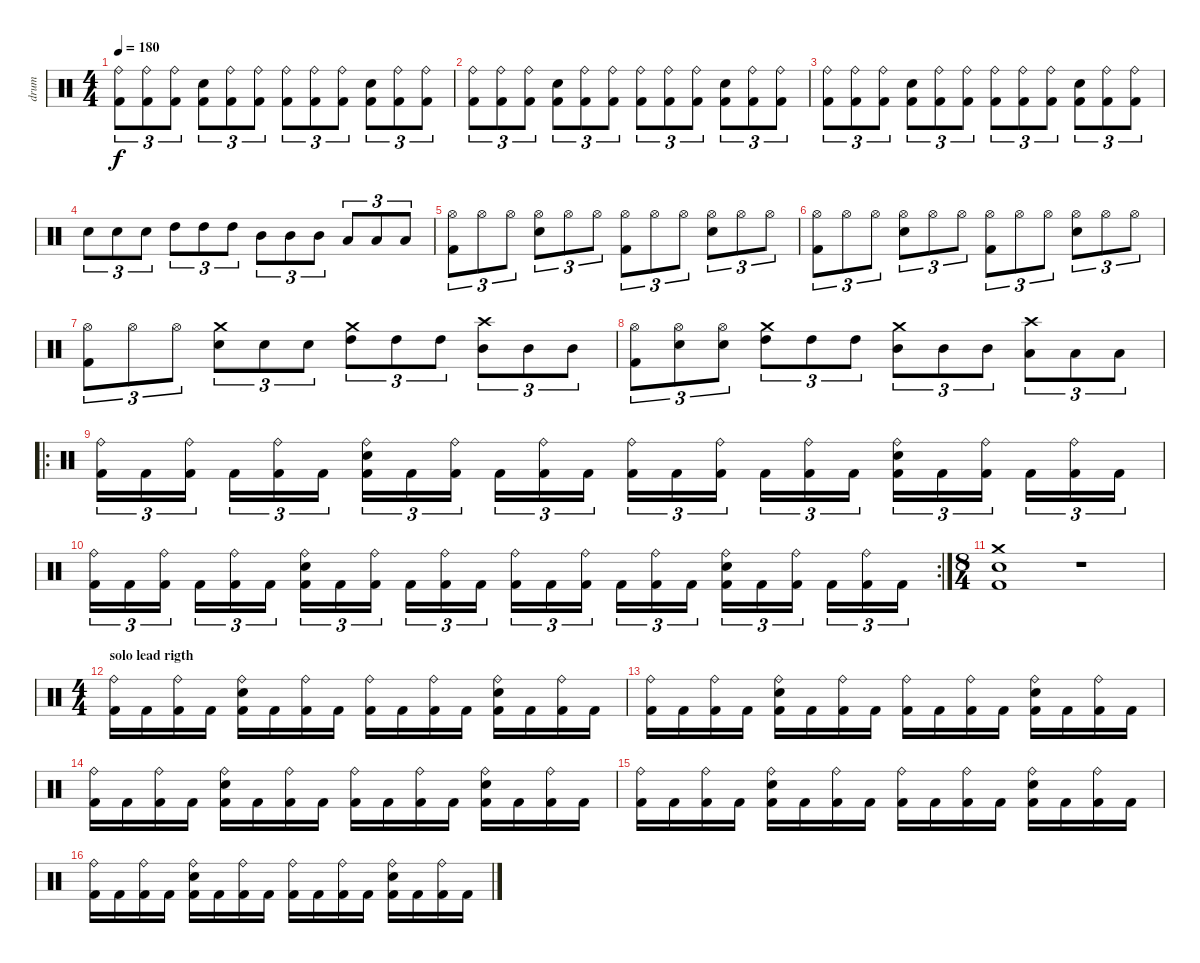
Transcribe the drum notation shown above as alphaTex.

\track ("drum" "drum") {instrument percussion}
\staff {score}
\articulation defaults
\ts (4 4)
\tempo 180
\clef neutral
\ks c
("Ride (bell)" "Kick (hit) 2").8{tu (3 2) dy f} ("Ride (bell)" "Kick (hit) 2").8{tu (3 2)} ("Ride (bell)" "Kick (hit) 2").8{tu (3 2)} ("Electric Snare (hit)" "Kick (hit) 2").8{tu (3 2)} ("Ride (bell)" "Kick (hit) 2").8{tu (3 2)} ("Ride (bell)" "Kick (hit) 2").8{tu (3 2)} ("Ride (bell)" "Kick (hit) 2").8{tu (3 2)} ("Ride (bell)" "Kick (hit) 2").8{tu (3 2)} ("Ride (bell)" "Kick (hit) 2").8{tu (3 2)} ("Electric Snare (hit)" "Kick (hit) 2").8{tu (3 2)} ("Ride (bell)" "Kick (hit) 2").8{tu (3 2)} ("Ride (bell)" "Kick (hit) 2").8{tu (3 2)} |
("Ride (bell)" "Kick (hit) 2").8{tu (3 2)} ("Ride (bell)" "Kick (hit) 2").8{tu (3 2)} ("Ride (bell)" "Kick (hit) 2").8{tu (3 2)} ("Electric Snare (hit)" "Kick (hit) 2").8{tu (3 2)} ("Ride (bell)" "Kick (hit) 2").8{tu (3 2)} ("Ride (bell)" "Kick (hit) 2").8{tu (3 2)} ("Ride (bell)" "Kick (hit) 2").8{tu (3 2)} ("Ride (bell)" "Kick (hit) 2").8{tu (3 2)} ("Ride (bell)" "Kick (hit) 2").8{tu (3 2)} ("Electric Snare (hit)" "Kick (hit) 2").8{tu (3 2)} ("Ride (bell)" "Kick (hit) 2").8{tu (3 2)} ("Ride (bell)" "Kick (hit) 2").8{tu (3 2)} |
("Ride (bell)" "Kick (hit) 2").8{tu (3 2)} ("Ride (bell)" "Kick (hit) 2").8{tu (3 2)} ("Ride (bell)" "Kick (hit) 2").8{tu (3 2)} ("Electric Snare (hit)" "Kick (hit) 2").8{tu (3 2)} ("Ride (bell)" "Kick (hit) 2").8{tu (3 2)} ("Ride (bell)" "Kick (hit) 2").8{tu (3 2)} ("Ride (bell)" "Kick (hit) 2").8{tu (3 2)} ("Ride (bell)" "Kick (hit) 2").8{tu (3 2)} ("Ride (bell)" "Kick (hit) 2").8{tu (3 2)} ("Electric Snare (hit)" "Kick (hit) 2").8{tu (3 2)} ("Ride (bell)" "Kick (hit) 2").8{tu (3 2)} ("Ride (bell)" "Kick (hit) 2").8{tu (3 2)} |
"Electric Snare (hit)".8{tu (3 2)} "Electric Snare (hit)".8{tu (3 2)} "Electric Snare (hit)".8{tu (3 2)} "High Tom (hit)".8{tu (3 2)} "High Tom (hit)".8{tu (3 2)} "High Tom (hit)".8{tu (3 2)} "Mid Tom (hit)".8{tu (3 2)} "Mid Tom (hit)".8{tu (3 2)} "Mid Tom (hit)".8{tu (3 2)} "Low Tom (hit)".8{tu (3 2)} "Low Tom (hit)".8{tu (3 2)} "Low Tom (hit)".8{tu (3 2)} |
("Hi-Hat (open)" "Kick (hit) 2").8{tu (3 2)} "Hi-Hat (open)".8{tu (3 2)} "Hi-Hat (open)".8{tu (3 2)} ("Hi-Hat (open)" "Electric Snare (hit)").8{tu (3 2)} "Hi-Hat (open)".8{tu (3 2)} "Hi-Hat (open)".8{tu (3 2)} ("Hi-Hat (open)" "Kick (hit) 2").8{tu (3 2)} "Hi-Hat (open)".8{tu (3 2)} "Hi-Hat (open)".8{tu (3 2)} ("Hi-Hat (open)" "Electric Snare (hit)").8{tu (3 2)} "Hi-Hat (open)".8{tu (3 2)} "Hi-Hat (open)".8{tu (3 2)} |
("Hi-Hat (open)" "Kick (hit) 2").8{tu (3 2)} "Hi-Hat (open)".8{tu (3 2)} "Hi-Hat (open)".8{tu (3 2)} ("Hi-Hat (open)" "Electric Snare (hit)").8{tu (3 2)} "Hi-Hat (open)".8{tu (3 2)} "Hi-Hat (open)".8{tu (3 2)} ("Hi-Hat (open)" "Kick (hit) 2").8{tu (3 2)} "Hi-Hat (open)".8{tu (3 2)} "Hi-Hat (open)".8{tu (3 2)} ("Hi-Hat (open)" "Electric Snare (hit)").8{tu (3 2)} "Hi-Hat (open)".8{tu (3 2)} "Hi-Hat (open)".8{tu (3 2)} |
("Hi-Hat (open)" "Kick (hit) 2").8{tu (3 2)} "Hi-Hat (open)".8{tu (3 2)} "Hi-Hat (open)".8{tu (3 2)} ("Crash medium (hit)" "Electric Snare (hit)").8{tu (3 2)} "Electric Snare (hit)".8{tu (3 2)} "Electric Snare (hit)".8{tu (3 2)} ("Crash medium (hit)" "High Tom (hit)").8{tu (3 2)} "High Tom (hit)".8{tu (3 2)} "High Tom (hit)".8{tu (3 2)} ("Crash high (hit)" "Mid Tom (hit)").8{tu (3 2)} "Mid Tom (hit)".8{tu (3 2)} "Mid Tom (hit)".8{tu (3 2)} |
("Hi-Hat (open)" "Kick (hit) 2").8{tu (3 2)} ("Hi-Hat (open)" "Electric Snare (hit)").8{tu (3 2)} ("Hi-Hat (open)" "Electric Snare (hit)").8{tu (3 2)} ("Crash medium (hit)" "High Tom (hit)").8{tu (3 2)} "High Tom (hit)".8{tu (3 2)} "High Tom (hit)".8{tu (3 2)} ("Crash medium (hit)" "Mid Tom (hit)").8{tu (3 2)} "Mid Tom (hit)".8{tu (3 2)} "Mid Tom (hit)".8{tu (3 2)} ("Crash high (hit)" "Low Tom (hit)").8{tu (3 2)} "Low Tom (hit)".8{tu (3 2)} "Low Tom (hit)".8{tu (3 2)} |
\ro
("Ride (bell)" "Kick (hit) 2").16{tu (3 2)} "Kick (hit) 2".16{tu (3 2)} ("Ride (bell)" "Kick (hit) 2").16{tu (3 2)} "Kick (hit) 2".16{tu (3 2)} ("Ride (bell)" "Kick (hit) 2").16{tu (3 2)} "Kick (hit) 2".16{tu (3 2)} ("Ride (bell)" "Electric Snare (hit)" "Kick (hit) 2").16{tu (3 2)} "Kick (hit) 2".16{tu (3 2)} ("Ride (bell)" "Kick (hit) 2").16{tu (3 2)} "Kick (hit) 2".16{tu (3 2)} ("Ride (bell)" "Kick (hit) 2").16{tu (3 2)} "Kick (hit) 2".16{tu (3 2)} ("Ride (bell)" "Kick (hit) 2").16{tu (3 2)} "Kick (hit) 2".16{tu (3 2)} ("Ride (bell)" "Kick (hit) 2").16{tu (3 2)} "Kick (hit) 2".16{tu (3 2)} ("Ride (bell)" "Kick (hit) 2").16{tu (3 2)} "Kick (hit) 2".16{tu (3 2)} ("Ride (bell)" "Electric Snare (hit)" "Kick (hit) 2").16{tu (3 2)} "Kick (hit) 2".16{tu (3 2)} ("Ride (bell)" "Kick (hit) 2").16{tu (3 2)} "Kick (hit) 2".16{tu (3 2)} ("Ride (bell)" "Kick (hit) 2").16{tu (3 2)} "Kick (hit) 2".16{tu (3 2)} |
\rc 2
("Ride (bell)" "Kick (hit) 2").16{tu (3 2)} "Kick (hit) 2".16{tu (3 2)} ("Ride (bell)" "Kick (hit) 2").16{tu (3 2)} "Kick (hit) 2".16{tu (3 2)} ("Ride (bell)" "Kick (hit) 2").16{tu (3 2)} "Kick (hit) 2".16{tu (3 2)} ("Ride (bell)" "Electric Snare (hit)" "Kick (hit) 2").16{tu (3 2)} "Kick (hit) 2".16{tu (3 2)} ("Ride (bell)" "Kick (hit) 2").16{tu (3 2)} "Kick (hit) 2".16{tu (3 2)} ("Ride (bell)" "Kick (hit) 2").16{tu (3 2)} "Kick (hit) 2".16{tu (3 2)} ("Ride (bell)" "Kick (hit) 2").16{tu (3 2)} "Kick (hit) 2".16{tu (3 2)} ("Ride (bell)" "Kick (hit) 2").16{tu (3 2)} "Kick (hit) 2".16{tu (3 2)} ("Ride (bell)" "Kick (hit) 2").16{tu (3 2)} "Kick (hit) 2".16{tu (3 2)} ("Ride (bell)" "Electric Snare (hit)" "Kick (hit) 2").16{tu (3 2)} "Kick (hit) 2".16{tu (3 2)} ("Ride (bell)" "Kick (hit) 2").16{tu (3 2)} "Kick (hit) 2".16{tu (3 2)} ("Ride (bell)" "Kick (hit) 2").16{tu (3 2)} "Kick (hit) 2".16{tu (3 2)} |
\ts (8 4)
("Crash medium (hit)" "Electric Snare (hit)" "Kick (hit) 2").1 r.1 |
\ts (4 4)
\section ("" "solo lead rigth")
("Ride (bell)" "Kick (hit) 2").16 "Kick (hit) 2".16 ("Ride (bell)" "Kick (hit) 2").16 "Kick (hit) 2".16 ("Ride (bell)" "Electric Snare (hit)" "Kick (hit) 2").16 "Kick (hit) 2".16 ("Ride (bell)" "Kick (hit) 2").16 "Kick (hit) 2".16 ("Ride (bell)" "Kick (hit) 2").16 "Kick (hit) 2".16 ("Ride (bell)" "Kick (hit) 2").16 "Kick (hit) 2".16 ("Ride (bell)" "Electric Snare (hit)" "Kick (hit) 2").16 "Kick (hit) 2".16 ("Ride (bell)" "Kick (hit) 2").16 "Kick (hit) 2".16 |
("Ride (bell)" "Kick (hit) 2").16 "Kick (hit) 2".16 ("Ride (bell)" "Kick (hit) 2").16 "Kick (hit) 2".16 ("Ride (bell)" "Electric Snare (hit)" "Kick (hit) 2").16 "Kick (hit) 2".16 ("Ride (bell)" "Kick (hit) 2").16 "Kick (hit) 2".16 ("Ride (bell)" "Kick (hit) 2").16 "Kick (hit) 2".16 ("Ride (bell)" "Kick (hit) 2").16 "Kick (hit) 2".16 ("Ride (bell)" "Electric Snare (hit)" "Kick (hit) 2").16 "Kick (hit) 2".16 ("Ride (bell)" "Kick (hit) 2").16 "Kick (hit) 2".16 |
("Ride (bell)" "Kick (hit) 2").16 "Kick (hit) 2".16 ("Ride (bell)" "Kick (hit) 2").16 "Kick (hit) 2".16 ("Ride (bell)" "Electric Snare (hit)" "Kick (hit) 2").16 "Kick (hit) 2".16 ("Ride (bell)" "Kick (hit) 2").16 "Kick (hit) 2".16 ("Ride (bell)" "Kick (hit) 2").16 "Kick (hit) 2".16 ("Ride (bell)" "Kick (hit) 2").16 "Kick (hit) 2".16 ("Ride (bell)" "Electric Snare (hit)" "Kick (hit) 2").16 "Kick (hit) 2".16 ("Ride (bell)" "Kick (hit) 2").16 "Kick (hit) 2".16 |
("Ride (bell)" "Kick (hit) 2").16 "Kick (hit) 2".16 ("Ride (bell)" "Kick (hit) 2").16 "Kick (hit) 2".16 ("Ride (bell)" "Electric Snare (hit)" "Kick (hit) 2").16 "Kick (hit) 2".16 ("Ride (bell)" "Kick (hit) 2").16 "Kick (hit) 2".16 ("Ride (bell)" "Kick (hit) 2").16 "Kick (hit) 2".16 ("Ride (bell)" "Kick (hit) 2").16 "Kick (hit) 2".16 ("Ride (bell)" "Electric Snare (hit)" "Kick (hit) 2").16 "Kick (hit) 2".16 ("Ride (bell)" "Kick (hit) 2").16 "Kick (hit) 2".16 |
("Ride (bell)" "Kick (hit) 2").16 "Kick (hit) 2".16 ("Ride (bell)" "Kick (hit) 2").16 "Kick (hit) 2".16 ("Ride (bell)" "Electric Snare (hit)" "Kick (hit) 2").16 "Kick (hit) 2".16 ("Ride (bell)" "Kick (hit) 2").16 "Kick (hit) 2".16 ("Ride (bell)" "Kick (hit) 2").16 "Kick (hit) 2".16 ("Ride (bell)" "Kick (hit) 2").16 "Kick (hit) 2".16 ("Ride (bell)" "Electric Snare (hit)" "Kick (hit) 2").16 "Kick (hit) 2".16 ("Ride (bell)" "Kick (hit) 2").16 "Kick (hit) 2".16
